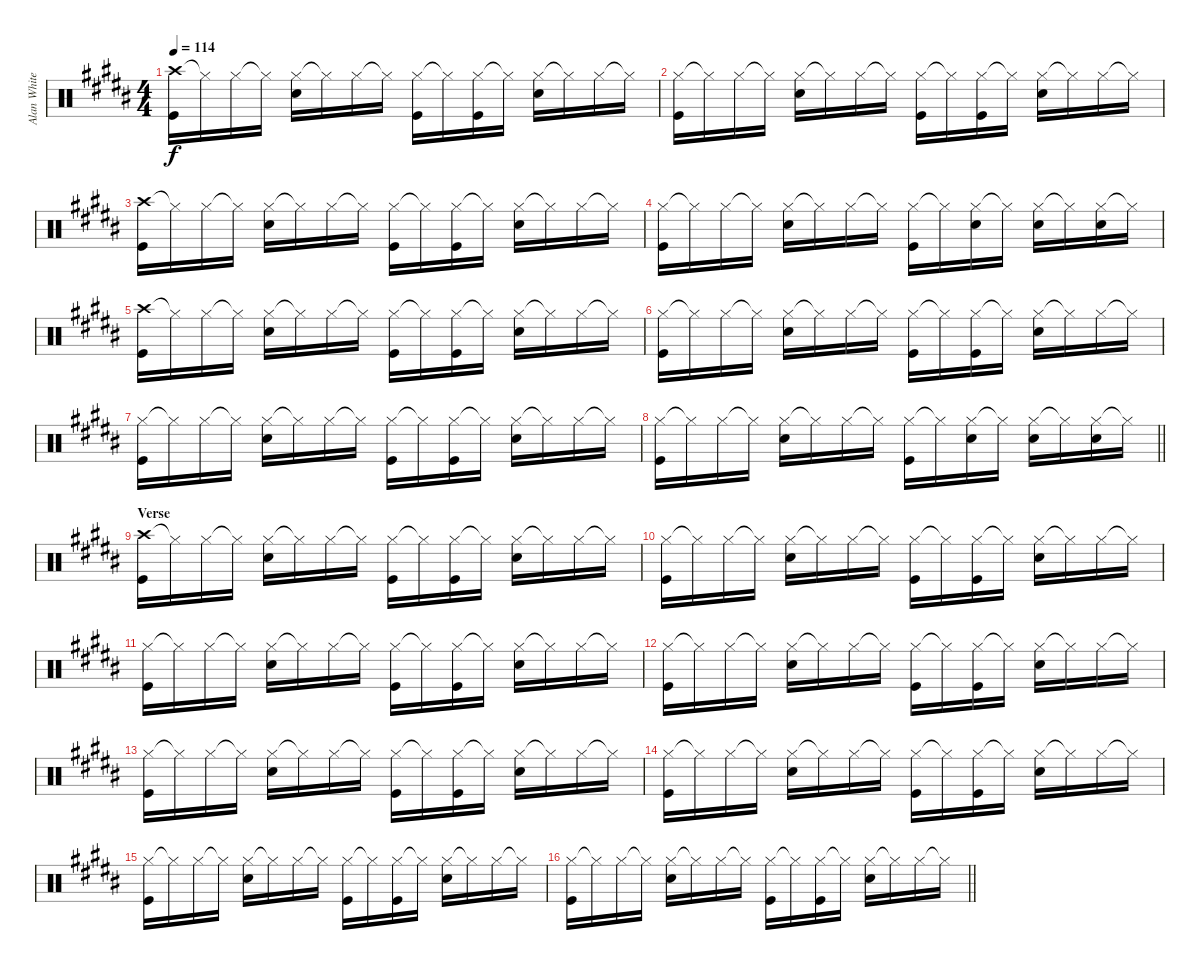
\track ("Alan White" "Alan White") {instrument percussion}
\staff {score}
\articulation defaults
\ts (4 4)
\tempo 114
\clef neutral
\ks b
("Crash high (hit)" "Kick (hit)").16{dy f} "Hi-Hat (closed)"{t}.16 "Hi-Hat (closed)".16 "Hi-Hat (closed)"{t}.16 ("Hi-Hat (closed)" "Snare (hit) 2").16 "Hi-Hat (closed)"{t}.16 "Hi-Hat (closed)".16 "Hi-Hat (closed)"{t}.16 ("Hi-Hat (closed)" "Kick (hit)").16 "Hi-Hat (closed)"{t}.16 ("Hi-Hat (closed)" "Kick (hit)").16 "Hi-Hat (closed)"{t}.16 ("Hi-Hat (closed)" "Snare (hit) 2").16 "Hi-Hat (closed)"{t}.16 "Hi-Hat (closed)".16 "Hi-Hat (closed)"{t}.16 |
("Hi-Hat (closed)" "Kick (hit)").16 "Hi-Hat (closed)"{t}.16 "Hi-Hat (closed)".16 "Hi-Hat (closed)"{t}.16 ("Hi-Hat (closed)" "Snare (hit) 2").16 "Hi-Hat (closed)"{t}.16 "Hi-Hat (closed)".16 "Hi-Hat (closed)"{t}.16 ("Hi-Hat (closed)" "Kick (hit)").16 "Hi-Hat (closed)"{t}.16 ("Hi-Hat (closed)" "Kick (hit)").16 "Hi-Hat (closed)"{t}.16 ("Hi-Hat (closed)" "Snare (hit) 2").16 "Hi-Hat (closed)"{t}.16 "Hi-Hat (closed)".16 "Hi-Hat (closed)"{t}.16 |
("Crash high (hit)" "Kick (hit)").16 "Hi-Hat (closed)"{t}.16 "Hi-Hat (closed)".16 "Hi-Hat (closed)"{t}.16 ("Hi-Hat (closed)" "Snare (hit) 2").16 "Hi-Hat (closed)"{t}.16 "Hi-Hat (closed)".16 "Hi-Hat (closed)"{t}.16 ("Hi-Hat (closed)" "Kick (hit)").16 "Hi-Hat (closed)"{t}.16 ("Hi-Hat (closed)" "Kick (hit)").16 "Hi-Hat (closed)"{t}.16 ("Hi-Hat (closed)" "Snare (hit) 2").16 "Hi-Hat (closed)"{t}.16 "Hi-Hat (closed)".16 "Hi-Hat (closed)"{t}.16 |
("Hi-Hat (closed)" "Kick (hit)").16 "Hi-Hat (closed)"{t}.16 "Hi-Hat (closed)".16 "Hi-Hat (closed)"{t}.16 ("Hi-Hat (closed)" "Snare (hit) 2").16 "Hi-Hat (closed)"{t}.16 "Hi-Hat (closed)".16 "Hi-Hat (closed)"{t}.16 ("Hi-Hat (closed)" "Kick (hit)").16 "Hi-Hat (closed)"{t}.16 ("Hi-Hat (closed)" "Snare (hit) 2").16 "Hi-Hat (closed)"{t}.16 ("Hi-Hat (closed)" "Snare (hit) 2").16 "Hi-Hat (closed)"{t}.16 ("Hi-Hat (closed)" "Snare (hit) 2").16 "Hi-Hat (closed)"{t}.16 |
("Crash high (hit)" "Kick (hit)").16 "Hi-Hat (closed)"{t}.16 "Hi-Hat (closed)".16 "Hi-Hat (closed)"{t}.16 ("Hi-Hat (closed)" "Snare (hit) 2").16 "Hi-Hat (closed)"{t}.16 "Hi-Hat (closed)".16 "Hi-Hat (closed)"{t}.16 ("Hi-Hat (closed)" "Kick (hit)").16 "Hi-Hat (closed)"{t}.16 ("Hi-Hat (closed)" "Kick (hit)").16 "Hi-Hat (closed)"{t}.16 ("Hi-Hat (closed)" "Snare (hit) 2").16 "Hi-Hat (closed)"{t}.16 "Hi-Hat (closed)".16 "Hi-Hat (closed)"{t}.16 |
("Hi-Hat (closed)" "Kick (hit)").16 "Hi-Hat (closed)"{t}.16 "Hi-Hat (closed)".16 "Hi-Hat (closed)"{t}.16 ("Hi-Hat (closed)" "Snare (hit) 2").16 "Hi-Hat (closed)"{t}.16 "Hi-Hat (closed)".16 "Hi-Hat (closed)"{t}.16 ("Hi-Hat (closed)" "Kick (hit)").16 "Hi-Hat (closed)"{t}.16 ("Hi-Hat (closed)" "Kick (hit)").16 "Hi-Hat (closed)"{t}.16 ("Hi-Hat (closed)" "Snare (hit) 2").16 "Hi-Hat (closed)"{t}.16 "Hi-Hat (closed)".16 "Hi-Hat (closed)"{t}.16 |
("Hi-Hat (closed)" "Kick (hit)").16 "Hi-Hat (closed)"{t}.16 "Hi-Hat (closed)".16 "Hi-Hat (closed)"{t}.16 ("Hi-Hat (closed)" "Snare (hit) 2").16 "Hi-Hat (closed)"{t}.16 "Hi-Hat (closed)".16 "Hi-Hat (closed)"{t}.16 ("Hi-Hat (closed)" "Kick (hit)").16 "Hi-Hat (closed)"{t}.16 ("Hi-Hat (closed)" "Kick (hit)").16 "Hi-Hat (closed)"{t}.16 ("Hi-Hat (closed)" "Snare (hit) 2").16 "Hi-Hat (closed)"{t}.16 "Hi-Hat (closed)".16 "Hi-Hat (closed)"{t}.16 |
\barLineRight lightlight
("Hi-Hat (closed)" "Kick (hit)").16 "Hi-Hat (closed)"{t}.16 "Hi-Hat (closed)".16 "Hi-Hat (closed)"{t}.16 ("Hi-Hat (closed)" "Snare (hit) 2").16 "Hi-Hat (closed)"{t}.16 "Hi-Hat (closed)".16 "Hi-Hat (closed)"{t}.16 ("Hi-Hat (closed)" "Kick (hit)").16 "Hi-Hat (closed)"{t}.16 ("Hi-Hat (closed)" "Snare (hit) 2").16 "Hi-Hat (closed)"{t}.16 ("Hi-Hat (closed)" "Snare (hit) 2").16 "Hi-Hat (closed)"{t}.16 ("Hi-Hat (closed)" "Snare (hit) 2").16 "Hi-Hat (closed)"{t}.16 |
\section ("" "Verse ")
("Crash high (hit)" "Kick (hit)").16 "Hi-Hat (closed)"{t}.16 "Hi-Hat (closed)".16 "Hi-Hat (closed)"{t}.16 ("Hi-Hat (closed)" "Snare (hit) 2").16 "Hi-Hat (closed)"{t}.16 "Hi-Hat (closed)".16 "Hi-Hat (closed)"{t}.16 ("Hi-Hat (closed)" "Kick (hit)").16 "Hi-Hat (closed)"{t}.16 ("Hi-Hat (closed)" "Kick (hit)").16 "Hi-Hat (closed)"{t}.16 ("Hi-Hat (closed)" "Snare (hit) 2").16 "Hi-Hat (closed)"{t}.16 "Hi-Hat (closed)".16 "Hi-Hat (closed)"{t}.16 |
("Hi-Hat (closed)" "Kick (hit)").16 "Hi-Hat (closed)"{t}.16 "Hi-Hat (closed)".16 "Hi-Hat (closed)"{t}.16 ("Hi-Hat (closed)" "Snare (hit) 2").16 "Hi-Hat (closed)"{t}.16 "Hi-Hat (closed)".16 "Hi-Hat (closed)"{t}.16 ("Hi-Hat (closed)" "Kick (hit)").16 "Hi-Hat (closed)"{t}.16 ("Hi-Hat (closed)" "Kick (hit)").16 "Hi-Hat (closed)"{t}.16 ("Hi-Hat (closed)" "Snare (hit) 2").16 "Hi-Hat (closed)"{t}.16 "Hi-Hat (closed)".16 "Hi-Hat (closed)"{t}.16 |
("Hi-Hat (closed)" "Kick (hit)").16 "Hi-Hat (closed)"{t}.16 "Hi-Hat (closed)".16 "Hi-Hat (closed)"{t}.16 ("Hi-Hat (closed)" "Snare (hit) 2").16 "Hi-Hat (closed)"{t}.16 "Hi-Hat (closed)".16 "Hi-Hat (closed)"{t}.16 ("Hi-Hat (closed)" "Kick (hit)").16 "Hi-Hat (closed)"{t}.16 ("Hi-Hat (closed)" "Kick (hit)").16 "Hi-Hat (closed)"{t}.16 ("Hi-Hat (closed)" "Snare (hit) 2").16 "Hi-Hat (closed)"{t}.16 "Hi-Hat (closed)".16 "Hi-Hat (closed)"{t}.16 |
("Hi-Hat (closed)" "Kick (hit)").16 "Hi-Hat (closed)"{t}.16 "Hi-Hat (closed)".16 "Hi-Hat (closed)"{t}.16 ("Hi-Hat (closed)" "Snare (hit) 2").16 "Hi-Hat (closed)"{t}.16 "Hi-Hat (closed)".16 "Hi-Hat (closed)"{t}.16 ("Hi-Hat (closed)" "Kick (hit)").16 "Hi-Hat (closed)"{t}.16 ("Hi-Hat (closed)" "Kick (hit)").16 "Hi-Hat (closed)"{t}.16 ("Hi-Hat (closed)" "Snare (hit) 2").16 "Hi-Hat (closed)"{t}.16 "Hi-Hat (closed)".16 "Hi-Hat (closed)"{t}.16 |
("Hi-Hat (closed)" "Kick (hit)").16 "Hi-Hat (closed)"{t}.16 "Hi-Hat (closed)".16 "Hi-Hat (closed)"{t}.16 ("Hi-Hat (closed)" "Snare (hit) 2").16 "Hi-Hat (closed)"{t}.16 "Hi-Hat (closed)".16 "Hi-Hat (closed)"{t}.16 ("Hi-Hat (closed)" "Kick (hit)").16 "Hi-Hat (closed)"{t}.16 ("Hi-Hat (closed)" "Kick (hit)").16 "Hi-Hat (closed)"{t}.16 ("Hi-Hat (closed)" "Snare (hit) 2").16 "Hi-Hat (closed)"{t}.16 "Hi-Hat (closed)".16 "Hi-Hat (closed)"{t}.16 |
("Hi-Hat (closed)" "Kick (hit)").16 "Hi-Hat (closed)"{t}.16 "Hi-Hat (closed)".16 "Hi-Hat (closed)"{t}.16 ("Hi-Hat (closed)" "Snare (hit) 2").16 "Hi-Hat (closed)"{t}.16 "Hi-Hat (closed)".16 "Hi-Hat (closed)"{t}.16 ("Hi-Hat (closed)" "Kick (hit)").16 "Hi-Hat (closed)"{t}.16 ("Hi-Hat (closed)" "Kick (hit)").16 "Hi-Hat (closed)"{t}.16 ("Hi-Hat (closed)" "Snare (hit) 2").16 "Hi-Hat (closed)"{t}.16 "Hi-Hat (closed)".16 "Hi-Hat (closed)"{t}.16 |
("Hi-Hat (closed)" "Kick (hit)").16 "Hi-Hat (closed)"{t}.16 "Hi-Hat (closed)".16 "Hi-Hat (closed)"{t}.16 ("Hi-Hat (closed)" "Snare (hit) 2").16 "Hi-Hat (closed)"{t}.16 "Hi-Hat (closed)".16 "Hi-Hat (closed)"{t}.16 ("Hi-Hat (closed)" "Kick (hit)").16 "Hi-Hat (closed)"{t}.16 ("Hi-Hat (closed)" "Kick (hit)").16 "Hi-Hat (closed)"{t}.16 ("Hi-Hat (closed)" "Snare (hit) 2").16 "Hi-Hat (closed)"{t}.16 "Hi-Hat (closed)".16 "Hi-Hat (closed)"{t}.16 |
\barLineRight lightlight
("Hi-Hat (closed)" "Kick (hit)").16 "Hi-Hat (closed)"{t}.16 "Hi-Hat (closed)".16 "Hi-Hat (closed)"{t}.16 ("Hi-Hat (closed)" "Snare (hit) 2").16 "Hi-Hat (closed)"{t}.16 "Hi-Hat (closed)".16 "Hi-Hat (closed)"{t}.16 ("Hi-Hat (closed)" "Kick (hit)").16 "Hi-Hat (closed)"{t}.16 ("Hi-Hat (closed)" "Kick (hit)").16 "Hi-Hat (closed)"{t}.16 ("Hi-Hat (closed)" "Snare (hit) 2").16 "Hi-Hat (closed)"{t}.16 "Hi-Hat (closed)".16 "Hi-Hat (closed)"{t}.16
